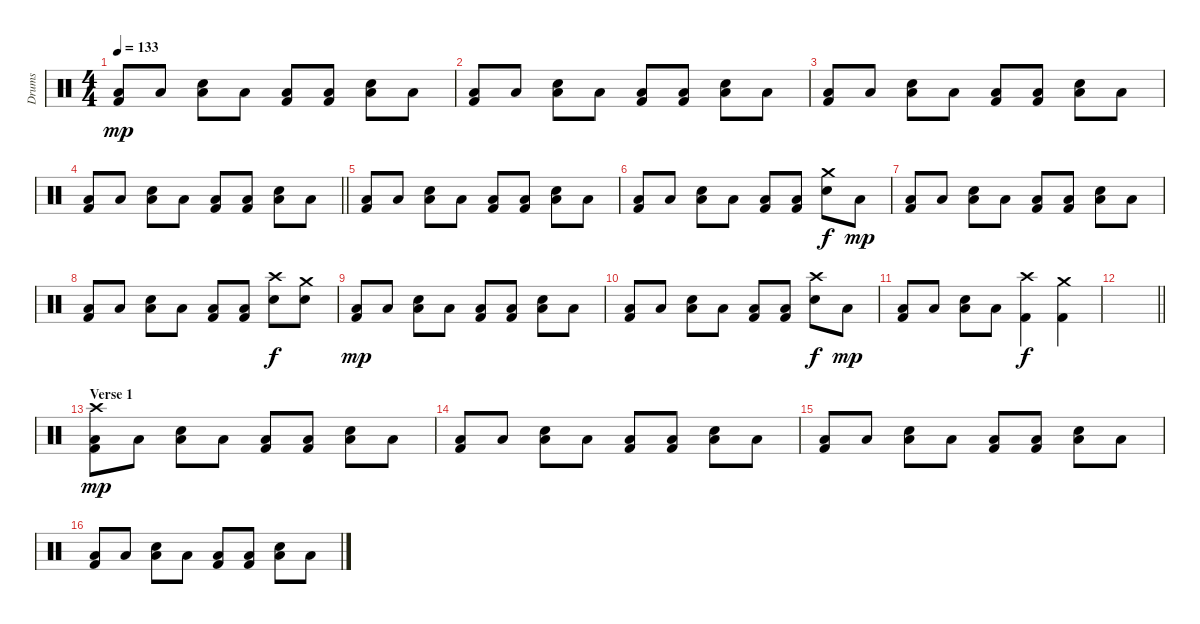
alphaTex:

\track ("Drums" "Drums") {instrument percussion}
\staff {score}
\articulation defaults
\ts (4 4)
\tempo 133
\clef neutral
\ks c
("Low Floor Tom (hit)" "Kick (hit) 2").8{dy mp} "Low Floor Tom (hit)".8 ("Low Floor Tom (hit)" "Snare (hit) 2").8 "Low Floor Tom (hit)".8 ("Low Floor Tom (hit)" "Kick (hit) 2").8 ("Low Floor Tom (hit)" "Kick (hit) 2").8 ("Low Floor Tom (hit)" "Snare (hit) 2").8 "Low Floor Tom (hit)".8 |
("Low Floor Tom (hit)" "Kick (hit) 2").8 "Low Floor Tom (hit)".8 ("Low Floor Tom (hit)" "Snare (hit) 2").8 "Low Floor Tom (hit)".8 ("Low Floor Tom (hit)" "Kick (hit) 2").8 ("Low Floor Tom (hit)" "Kick (hit) 2").8 ("Low Floor Tom (hit)" "Snare (hit) 2").8 "Low Floor Tom (hit)".8 |
("Low Floor Tom (hit)" "Kick (hit) 2").8 "Low Floor Tom (hit)".8 ("Low Floor Tom (hit)" "Snare (hit) 2").8 "Low Floor Tom (hit)".8 ("Low Floor Tom (hit)" "Kick (hit) 2").8 ("Low Floor Tom (hit)" "Kick (hit) 2").8 ("Low Floor Tom (hit)" "Snare (hit) 2").8 "Low Floor Tom (hit)".8 |
\barLineRight lightlight
("Low Floor Tom (hit)" "Kick (hit) 2").8 "Low Floor Tom (hit)".8 ("Low Floor Tom (hit)" "Snare (hit) 2").8 "Low Floor Tom (hit)".8 ("Low Floor Tom (hit)" "Kick (hit) 2").8 ("Low Floor Tom (hit)" "Kick (hit) 2").8 ("Low Floor Tom (hit)" "Snare (hit) 2").8 "Low Floor Tom (hit)".8 |
("Low Floor Tom (hit)" "Kick (hit) 2").8 "Low Floor Tom (hit)".8 ("Low Floor Tom (hit)" "Snare (hit) 2").8 "Low Floor Tom (hit)".8 ("Low Floor Tom (hit)" "Kick (hit) 2").8 ("Low Floor Tom (hit)" "Kick (hit) 2").8 ("Low Floor Tom (hit)" "Snare (hit) 2").8 "Low Floor Tom (hit)".8 |
("Low Floor Tom (hit)" "Kick (hit) 2").8 "Low Floor Tom (hit)".8 ("Low Floor Tom (hit)" "Snare (hit) 2").8 "Low Floor Tom (hit)".8 ("Low Floor Tom (hit)" "Kick (hit) 2").8 ("Low Floor Tom (hit)" "Kick (hit) 2").8 ("Crash medium (hit)" "Snare (hit) 2").8{dy f} "Low Floor Tom (hit)".8{dy mp} |
("Low Floor Tom (hit)" "Kick (hit) 2").8 "Low Floor Tom (hit)".8 ("Low Floor Tom (hit)" "Snare (hit) 2").8 "Low Floor Tom (hit)".8 ("Low Floor Tom (hit)" "Kick (hit) 2").8 ("Low Floor Tom (hit)" "Kick (hit) 2").8 ("Low Floor Tom (hit)" "Snare (hit) 2").8 "Low Floor Tom (hit)".8 |
("Low Floor Tom (hit)" "Kick (hit) 2").8 "Low Floor Tom (hit)".8 ("Low Floor Tom (hit)" "Snare (hit) 2").8 "Low Floor Tom (hit)".8 ("Low Floor Tom (hit)" "Kick (hit) 2").8 ("Low Floor Tom (hit)" "Kick (hit) 2").8 ("Crash high (hit)" "Snare (hit) 2").8{dy f} ("Crash medium (hit)" "Snare (hit) 2").8 |
("Low Floor Tom (hit)" "Kick (hit) 2").8{dy mp} "Low Floor Tom (hit)".8 ("Low Floor Tom (hit)" "Snare (hit) 2").8 "Low Floor Tom (hit)".8 ("Low Floor Tom (hit)" "Kick (hit) 2").8 ("Low Floor Tom (hit)" "Kick (hit) 2").8 ("Low Floor Tom (hit)" "Snare (hit) 2").8 "Low Floor Tom (hit)".8 |
("Low Floor Tom (hit)" "Kick (hit) 2").8 "Low Floor Tom (hit)".8 ("Low Floor Tom (hit)" "Snare (hit) 2").8 "Low Floor Tom (hit)".8 ("Low Floor Tom (hit)" "Kick (hit) 2").8 ("Low Floor Tom (hit)" "Kick (hit) 2").8 ("Crash high (hit)" "Snare (hit) 2").8{dy f} "Low Floor Tom (hit)".8{dy mp} |
("Low Floor Tom (hit)" "Kick (hit) 2").8 "Low Floor Tom (hit)".8 ("Low Floor Tom (hit)" "Snare (hit) 2").8 "Low Floor Tom (hit)".8 ("Crash high (hit)" "Kick (hit) 2").4{dy f} ("Crash medium (hit)" "Kick (hit) 2").4 |
\barLineRight lightlight
|
\section ("" "Verse 1")
("Crash high (hit)" "Low Floor Tom (hit)" "Kick (hit) 2").8{dy mp} "Low Floor Tom (hit)".8 ("Low Floor Tom (hit)" "Snare (hit) 2").8 "Low Floor Tom (hit)".8 ("Low Floor Tom (hit)" "Kick (hit) 2").8 ("Low Floor Tom (hit)" "Kick (hit) 2").8 ("Low Floor Tom (hit)" "Snare (hit) 2").8 "Low Floor Tom (hit)".8 |
("Low Floor Tom (hit)" "Kick (hit) 2").8 "Low Floor Tom (hit)".8 ("Low Floor Tom (hit)" "Snare (hit) 2").8 "Low Floor Tom (hit)".8 ("Low Floor Tom (hit)" "Kick (hit) 2").8 ("Low Floor Tom (hit)" "Kick (hit) 2").8 ("Low Floor Tom (hit)" "Snare (hit) 2").8 "Low Floor Tom (hit)".8 |
("Low Floor Tom (hit)" "Kick (hit) 2").8 "Low Floor Tom (hit)".8 ("Low Floor Tom (hit)" "Snare (hit) 2").8 "Low Floor Tom (hit)".8 ("Low Floor Tom (hit)" "Kick (hit) 2").8 ("Low Floor Tom (hit)" "Kick (hit) 2").8 ("Low Floor Tom (hit)" "Snare (hit) 2").8 "Low Floor Tom (hit)".8 |
("Low Floor Tom (hit)" "Kick (hit) 2").8 "Low Floor Tom (hit)".8 ("Low Floor Tom (hit)" "Snare (hit) 2").8 "Low Floor Tom (hit)".8 ("Low Floor Tom (hit)" "Kick (hit) 2").8 ("Low Floor Tom (hit)" "Kick (hit) 2").8 ("Low Floor Tom (hit)" "Snare (hit) 2").8 "Low Floor Tom (hit)".8
